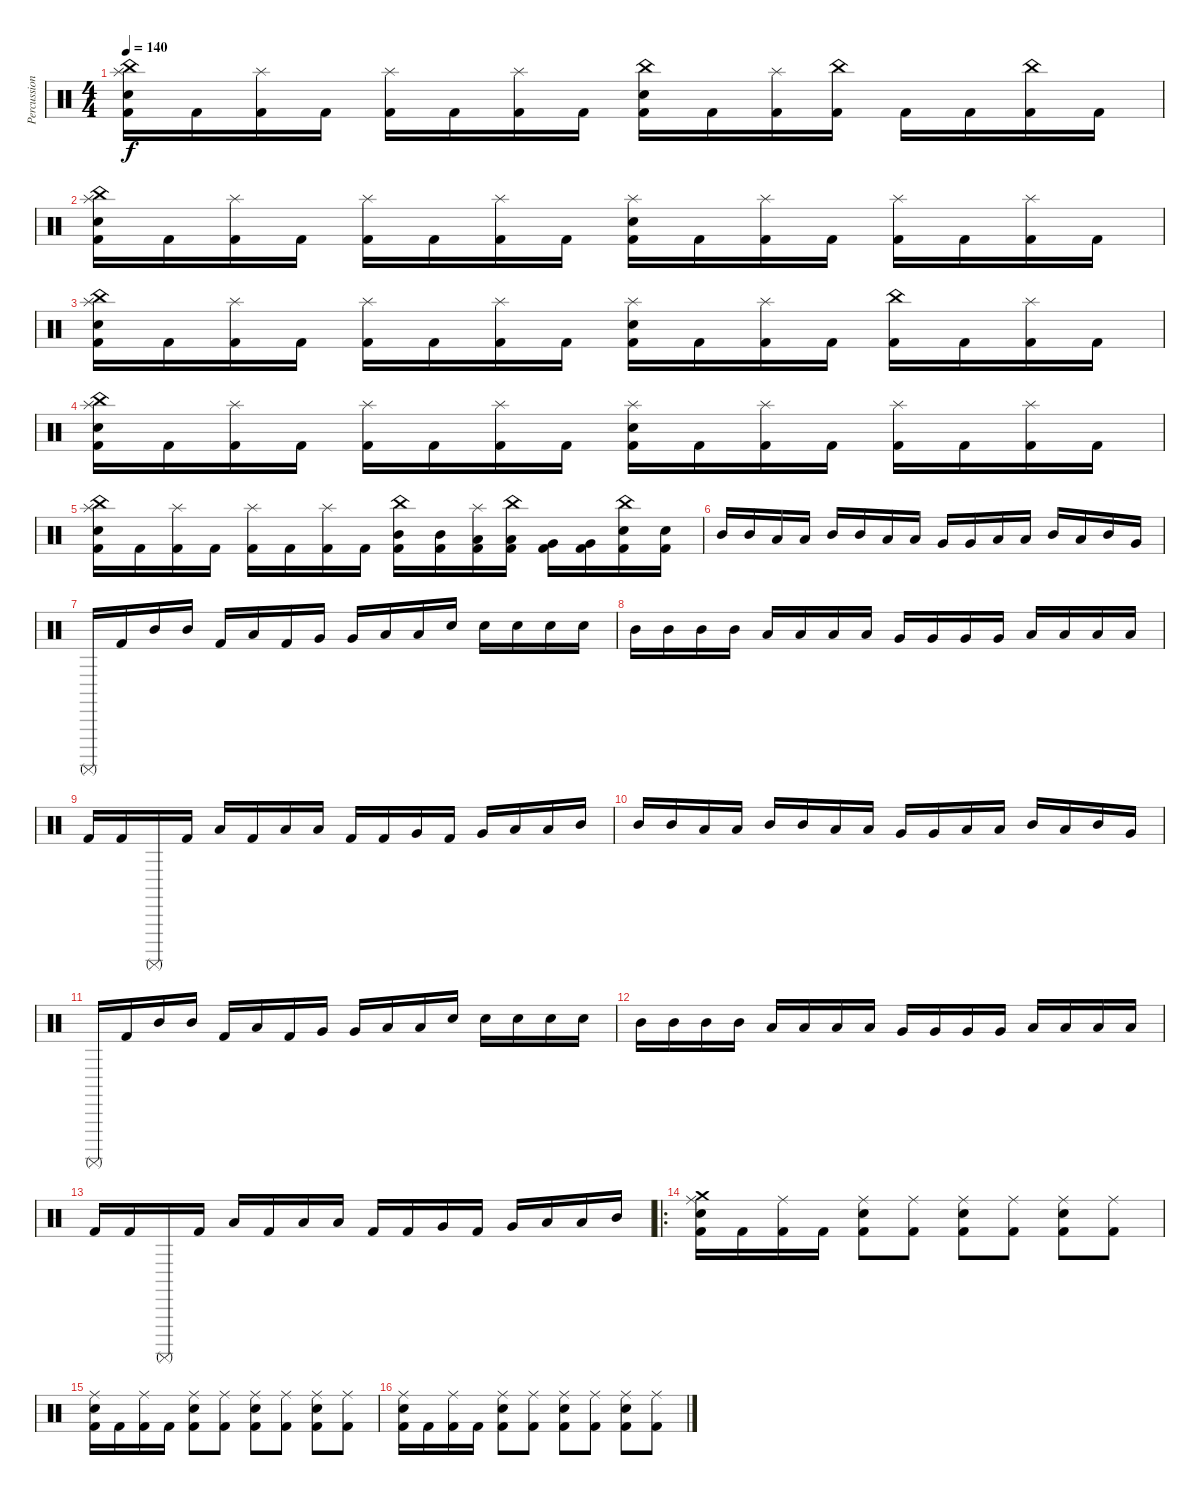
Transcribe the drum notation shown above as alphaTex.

\track ("Percussion" "Percussion") {instrument percussion}
\staff {score}
\articulation defaults
\ts (4 4)
\tempo 140
\clef neutral
\ks c
("China (hit)" "Splash (hit)" "Electric Snare (hit)" "Kick (hit) 2").16{dy f} "Kick (hit) 2".16 ("Splash (hit)" "Kick (hit) 2").16 "Kick (hit) 2".16 ("Splash (hit)" "Kick (hit) 2").16 "Kick (hit) 2".16 ("Splash (hit)" "Kick (hit) 2").16 "Kick (hit) 2".16 ("China (hit)" "Electric Snare (hit)" "Kick (hit) 2").16 "Kick (hit) 2".16 ("Splash (hit)" "Kick (hit) 2").16 ("China (hit)" "Kick (hit) 2").16 "Kick (hit) 2".16 "Kick (hit) 2".16 ("China (hit)" "Kick (hit) 2").16 "Kick (hit) 2".16 |
("China (hit)" "Splash (hit)" "Electric Snare (hit)" "Kick (hit) 2").16 "Kick (hit) 2".16 ("Splash (hit)" "Kick (hit) 2").16 "Kick (hit) 2".16 ("Splash (hit)" "Kick (hit) 2").16 "Kick (hit) 2".16 ("Splash (hit)" "Kick (hit) 2").16 "Kick (hit) 2".16 ("Splash (hit)" "Electric Snare (hit)" "Kick (hit) 2").16 "Kick (hit) 2".16 ("Splash (hit)" "Kick (hit) 2").16 "Kick (hit) 2".16 ("Splash (hit)" "Kick (hit) 2").16 "Kick (hit) 2".16 ("Splash (hit)" "Kick (hit) 2").16 "Kick (hit) 2".16 |
("China (hit)" "Splash (hit)" "Electric Snare (hit)" "Kick (hit) 2").16 "Kick (hit) 2".16 ("Splash (hit)" "Kick (hit) 2").16 "Kick (hit) 2".16 ("Splash (hit)" "Kick (hit) 2").16 "Kick (hit) 2".16 ("Splash (hit)" "Kick (hit) 2").16 "Kick (hit) 2".16 ("Splash (hit)" "Electric Snare (hit)" "Kick (hit) 2").16 "Kick (hit) 2".16 ("Splash (hit)" "Kick (hit) 2").16 "Kick (hit) 2".16 ("China (hit)" "Kick (hit) 2").16 "Kick (hit) 2".16 ("Splash (hit)" "Kick (hit) 2").16 "Kick (hit) 2".16 |
("China (hit)" "Splash (hit)" "Electric Snare (hit)" "Kick (hit) 2").16 "Kick (hit) 2".16 ("Splash (hit)" "Kick (hit) 2").16 "Kick (hit) 2".16 ("Splash (hit)" "Kick (hit) 2").16 "Kick (hit) 2".16 ("Splash (hit)" "Kick (hit) 2").16 "Kick (hit) 2".16 ("Splash (hit)" "Electric Snare (hit)" "Kick (hit) 2").16 "Kick (hit) 2".16 ("Splash (hit)" "Kick (hit) 2").16 "Kick (hit) 2".16 ("Splash (hit)" "Kick (hit) 2").16 "Kick (hit) 2".16 ("Splash (hit)" "Kick (hit) 2").16 "Kick (hit) 2".16 |
("China (hit)" "Splash (hit)" "Electric Snare (hit)" "Kick (hit) 2").16 "Kick (hit) 2".16 ("Splash (hit)" "Kick (hit) 2").16 "Kick (hit) 2".16 ("Splash (hit)" "Kick (hit) 2").16 "Kick (hit) 2".16 ("Splash (hit)" "Kick (hit) 2").16 "Kick (hit) 2".16 ("China (hit)" "Mid Tom (hit)" "Kick (hit) 2").16 ("Mid Tom (hit)" "Kick (hit) 2").16 ("Splash (hit)" "Low Tom (hit)" "Kick (hit) 2").16 ("China (hit)" "Low Tom (hit)" "Kick (hit) 2").16 ("Very Low Tom (hit)" "Kick (hit) 2").16 ("Very Low Tom (hit)" "Kick (hit) 2").16 ("China (hit)" "Electric Snare (hit)" "Kick (hit) 2").16 ("Electric Snare (hit)" "Kick (hit) 2").16 |
"Mid Tom (hit)".16 "Mid Tom (hit)".16 "Low Tom (hit)".16 "Low Tom (hit)".16 "Mid Tom (hit)".16 "Mid Tom (hit)".16 "Low Tom (hit)".16 "Low Tom (hit)".16 "Very Low Tom (hit)".16 "Very Low Tom (hit)".16 "Low Floor Tom (hit)".16 "Low Floor Tom (hit)".16 "Mid Tom (hit)".16 "Low Tom (hit)".16 "Mid Tom (hit)".16 "Very Low Tom (hit)".16 |
"Surdo (mute)".16 "Kick (hit) 2".16 "Mid Tom (hit)".16 "Mid Tom (hit)".16 "Kick (hit) 2".16 "Low Tom (hit)".16 "Kick (hit) 2".16 "Very Low Tom (hit)".16 "Very Low Tom (hit)".16 "Low Floor Tom (hit)".16 "Low Floor Tom (hit)".16 "Electric Snare (hit)".16 "Electric Snare (hit)".16 "Electric Snare (hit)".16 "Electric Snare (hit)".16 "Electric Snare (hit)".16 |
"Mid Tom (hit)".16 "Mid Tom (hit)".16 "Mid Tom (hit)".16 "Mid Tom (hit)".16 "Low Tom (hit)".16 "Low Tom (hit)".16 "Low Tom (hit)".16 "Low Tom (hit)".16 "Very Low Tom (hit)".16 "Very Low Tom (hit)".16 "Very Low Tom (hit)".16 "Very Low Tom (hit)".16 "Low Floor Tom (hit)".16 "Low Floor Tom (hit)".16 "Low Floor Tom (hit)".16 "Low Floor Tom (hit)".16 |
"Kick (hit) 2".16 "Kick (hit) 2".16 "Surdo (mute)".16 "Kick (hit) 2".16 "Low Tom (hit)".16 "Kick (hit) 2".16 "Low Tom (hit)".16 "Low Tom (hit)".16 "Kick (hit) 2".16 "Kick (hit) 2".16 "Very Low Tom (hit)".16 "Kick (hit) 2".16 "Very Low Tom (hit)".16 "Low Floor Tom (hit)".16 "Low Tom (hit)".16 "Mid Tom (hit)".16 |
"Mid Tom (hit)".16 "Mid Tom (hit)".16 "Low Tom (hit)".16 "Low Tom (hit)".16 "Mid Tom (hit)".16 "Mid Tom (hit)".16 "Low Tom (hit)".16 "Low Tom (hit)".16 "Very Low Tom (hit)".16 "Very Low Tom (hit)".16 "Low Floor Tom (hit)".16 "Low Floor Tom (hit)".16 "Mid Tom (hit)".16 "Low Tom (hit)".16 "Mid Tom (hit)".16 "Very Low Tom (hit)".16 |
"Surdo (mute)".16 "Kick (hit) 2".16 "Mid Tom (hit)".16 "Mid Tom (hit)".16 "Kick (hit) 2".16 "Low Tom (hit)".16 "Kick (hit) 2".16 "Very Low Tom (hit)".16 "Very Low Tom (hit)".16 "Low Floor Tom (hit)".16 "Low Floor Tom (hit)".16 "Electric Snare (hit)".16 "Electric Snare (hit)".16 "Electric Snare (hit)".16 "Electric Snare (hit)".16 "Electric Snare (hit)".16 |
"Mid Tom (hit)".16 "Mid Tom (hit)".16 "Mid Tom (hit)".16 "Mid Tom (hit)".16 "Low Tom (hit)".16 "Low Tom (hit)".16 "Low Tom (hit)".16 "Low Tom (hit)".16 "Very Low Tom (hit)".16 "Very Low Tom (hit)".16 "Very Low Tom (hit)".16 "Very Low Tom (hit)".16 "Low Floor Tom (hit)".16 "Low Floor Tom (hit)".16 "Low Floor Tom (hit)".16 "Low Floor Tom (hit)".16 |
"Kick (hit) 2".16 "Kick (hit) 2".16 "Surdo (mute)".16 "Kick (hit) 2".16 "Low Tom (hit)".16 "Kick (hit) 2".16 "Low Tom (hit)".16 "Low Tom (hit)".16 "Kick (hit) 2".16 "Kick (hit) 2".16 "Very Low Tom (hit)".16 "Kick (hit) 2".16 "Very Low Tom (hit)".16 "Low Floor Tom (hit)".16 "Low Tom (hit)".16 "Mid Tom (hit)".16 |
\ro
("Crash medium (hit)" "Ride (middle)" "Electric Snare (hit)" "Kick (hit) 2").16 "Kick (hit) 2".16 ("Ride (middle)" "Kick (hit) 2").16 "Kick (hit) 2".16 ("Ride (middle)" "Electric Snare (hit)" "Kick (hit) 2").8 ("Ride (middle)" "Kick (hit) 2").8 ("Ride (middle)" "Electric Snare (hit)" "Kick (hit) 2").8 ("Ride (middle)" "Kick (hit) 2").8 ("Ride (middle)" "Electric Snare (hit)" "Kick (hit) 2").8 ("Ride (middle)" "Kick (hit) 2").8 |
("Ride (middle)" "Electric Snare (hit)" "Kick (hit) 2").16 "Kick (hit) 2".16 ("Ride (middle)" "Kick (hit) 2").16 "Kick (hit) 2".16 ("Ride (middle)" "Electric Snare (hit)" "Kick (hit) 2").8 ("Ride (middle)" "Kick (hit) 2").8 ("Ride (middle)" "Electric Snare (hit)" "Kick (hit) 2").8 ("Ride (middle)" "Kick (hit) 2").8 ("Ride (middle)" "Electric Snare (hit)" "Kick (hit) 2").8 ("Ride (middle)" "Kick (hit) 2").8 |
("Ride (middle)" "Electric Snare (hit)" "Kick (hit) 2").16 "Kick (hit) 2".16 ("Ride (middle)" "Kick (hit) 2").16 "Kick (hit) 2".16 ("Ride (middle)" "Electric Snare (hit)" "Kick (hit) 2").8 ("Ride (middle)" "Kick (hit) 2").8 ("Ride (middle)" "Electric Snare (hit)" "Kick (hit) 2").8 ("Ride (middle)" "Kick (hit) 2").8 ("Ride (middle)" "Electric Snare (hit)" "Kick (hit) 2").8 ("Ride (middle)" "Kick (hit) 2").8
